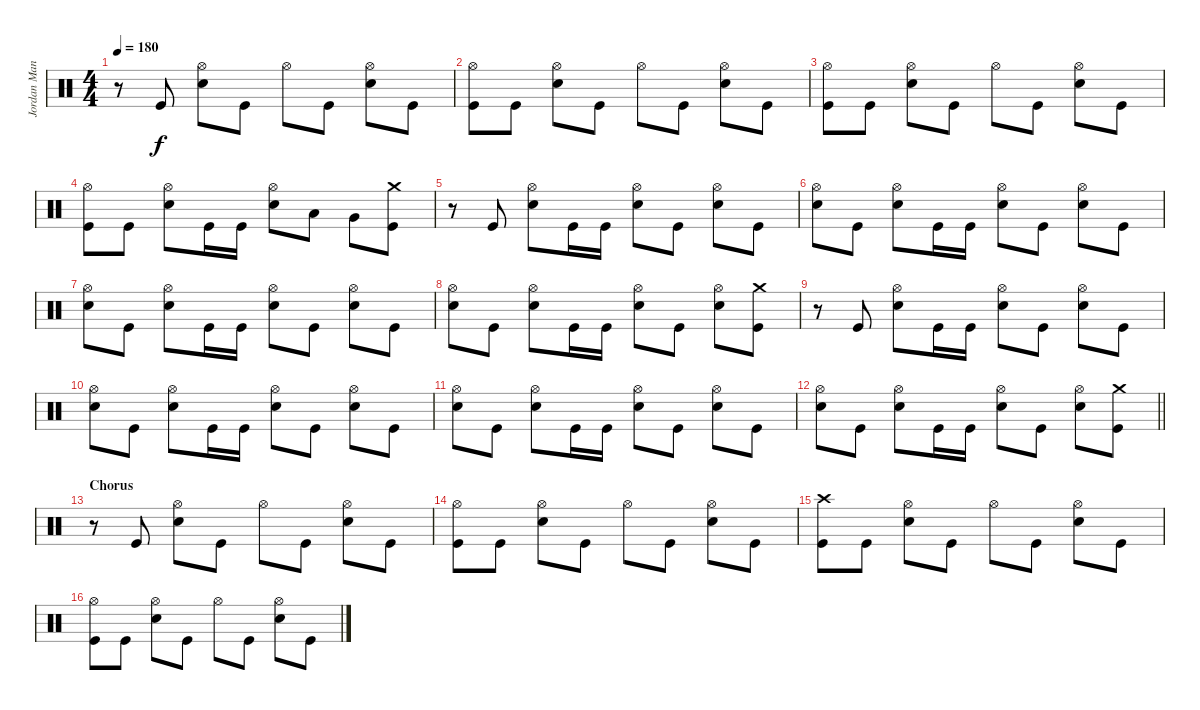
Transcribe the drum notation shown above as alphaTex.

\track ("Jordan Mancino" "Jordan Man") {instrument percussion}
\staff {score}
\articulation defaults
\ts (4 4)
\tempo 180
\clef neutral
\ks c
r.8{dy f} "Kick (hit)".8 ("Hi-Hat (open)" "Snare (hit) 2").8 "Kick (hit)".8 "Hi-Hat (open)".8 "Kick (hit)".8 ("Hi-Hat (open)" "Snare (hit) 2").8 "Kick (hit)".8 |
("Hi-Hat (open)" "Kick (hit)").8 "Kick (hit)".8 ("Hi-Hat (open)" "Snare (hit) 2").8 "Kick (hit)".8 "Hi-Hat (open)".8 "Kick (hit)".8 ("Hi-Hat (open)" "Snare (hit) 2").8 "Kick (hit)".8 |
("Hi-Hat (open)" "Kick (hit)").8 "Kick (hit)".8 ("Hi-Hat (open)" "Snare (hit) 2").8 "Kick (hit)".8 "Hi-Hat (open)".8 "Kick (hit)".8 ("Hi-Hat (open)" "Snare (hit) 2").8 "Kick (hit)".8 |
("Hi-Hat (open)" "Kick (hit)").8 "Kick (hit)".8 ("Hi-Hat (open)" "Snare (hit) 2").8 "Kick (hit)".16 "Kick (hit)".16 ("Hi-Hat (open)" "Snare (hit) 2").8 "Low Tom (hit)".8 "Very Low Tom (hit)".8 ("Crash medium (hit)" "Kick (hit)").8 |
r.8 "Kick (hit)".8 ("Hi-Hat (open)" "Snare (hit) 2").8 "Kick (hit)".16 "Kick (hit)".16 ("Hi-Hat (open)" "Snare (hit) 2").8 "Kick (hit)".8 ("Hi-Hat (open)" "Snare (hit) 2").8 "Kick (hit)".8 |
("Hi-Hat (open)" "Snare (hit) 2").8 "Kick (hit)".8 ("Hi-Hat (open)" "Snare (hit) 2").8 "Kick (hit)".16 "Kick (hit)".16 ("Hi-Hat (open)" "Snare (hit) 2").8 "Kick (hit)".8 ("Hi-Hat (open)" "Snare (hit) 2").8 "Kick (hit)".8 |
("Hi-Hat (open)" "Snare (hit) 2").8 "Kick (hit)".8 ("Hi-Hat (open)" "Snare (hit) 2").8 "Kick (hit)".16 "Kick (hit)".16 ("Hi-Hat (open)" "Snare (hit) 2").8 "Kick (hit)".8 ("Hi-Hat (open)" "Snare (hit) 2").8 "Kick (hit)".8 |
("Hi-Hat (open)" "Snare (hit) 2").8 "Kick (hit)".8 ("Hi-Hat (open)" "Snare (hit) 2").8 "Kick (hit)".16 "Kick (hit)".16 ("Hi-Hat (open)" "Snare (hit) 2").8 "Kick (hit)".8 ("Hi-Hat (open)" "Snare (hit) 2").8 ("Crash medium (hit)" "Kick (hit)").8 |
r.8 "Kick (hit)".8 ("Hi-Hat (open)" "Snare (hit) 2").8 "Kick (hit)".16 "Kick (hit)".16 ("Hi-Hat (open)" "Snare (hit) 2").8 "Kick (hit)".8 ("Hi-Hat (open)" "Snare (hit) 2").8 "Kick (hit)".8 |
("Hi-Hat (open)" "Snare (hit) 2").8 "Kick (hit)".8 ("Hi-Hat (open)" "Snare (hit) 2").8 "Kick (hit)".16 "Kick (hit)".16 ("Hi-Hat (open)" "Snare (hit) 2").8 "Kick (hit)".8 ("Hi-Hat (open)" "Snare (hit) 2").8 "Kick (hit)".8 |
("Hi-Hat (open)" "Snare (hit) 2").8 "Kick (hit)".8 ("Hi-Hat (open)" "Snare (hit) 2").8 "Kick (hit)".16 "Kick (hit)".16 ("Hi-Hat (open)" "Snare (hit) 2").8 "Kick (hit)".8 ("Hi-Hat (open)" "Snare (hit) 2").8 "Kick (hit)".8 |
\barLineRight lightlight
("Hi-Hat (open)" "Snare (hit) 2").8 "Kick (hit)".8 ("Hi-Hat (open)" "Snare (hit) 2").8 "Kick (hit)".16 "Kick (hit)".16 ("Hi-Hat (open)" "Snare (hit) 2").8 "Kick (hit)".8 ("Hi-Hat (open)" "Snare (hit) 2").8 ("Crash medium (hit)" "Kick (hit)").8 |
\section ("" "Chorus")
r.8 "Kick (hit)".8 ("Hi-Hat (open)" "Snare (hit) 2").8 "Kick (hit)".8 "Hi-Hat (open)".8 "Kick (hit)".8 ("Hi-Hat (open)" "Snare (hit) 2").8 "Kick (hit)".8 |
("Hi-Hat (open)" "Kick (hit)").8 "Kick (hit)".8 ("Hi-Hat (open)" "Snare (hit) 2").8 "Kick (hit)".8 "Hi-Hat (open)".8 "Kick (hit)".8 ("Hi-Hat (open)" "Snare (hit) 2").8 "Kick (hit)".8 |
("Crash high (hit)" "Kick (hit)").8 "Kick (hit)".8 ("Hi-Hat (open)" "Snare (hit) 2").8 "Kick (hit)".8 "Hi-Hat (open)".8 "Kick (hit)".8 ("Hi-Hat (open)" "Snare (hit) 2").8 "Kick (hit)".8 |
("Hi-Hat (open)" "Kick (hit)").8 "Kick (hit)".8 ("Hi-Hat (open)" "Snare (hit) 2").8 "Kick (hit)".8 "Hi-Hat (open)".8 "Kick (hit)".8 ("Hi-Hat (open)" "Snare (hit) 2").8 "Kick (hit)".8
